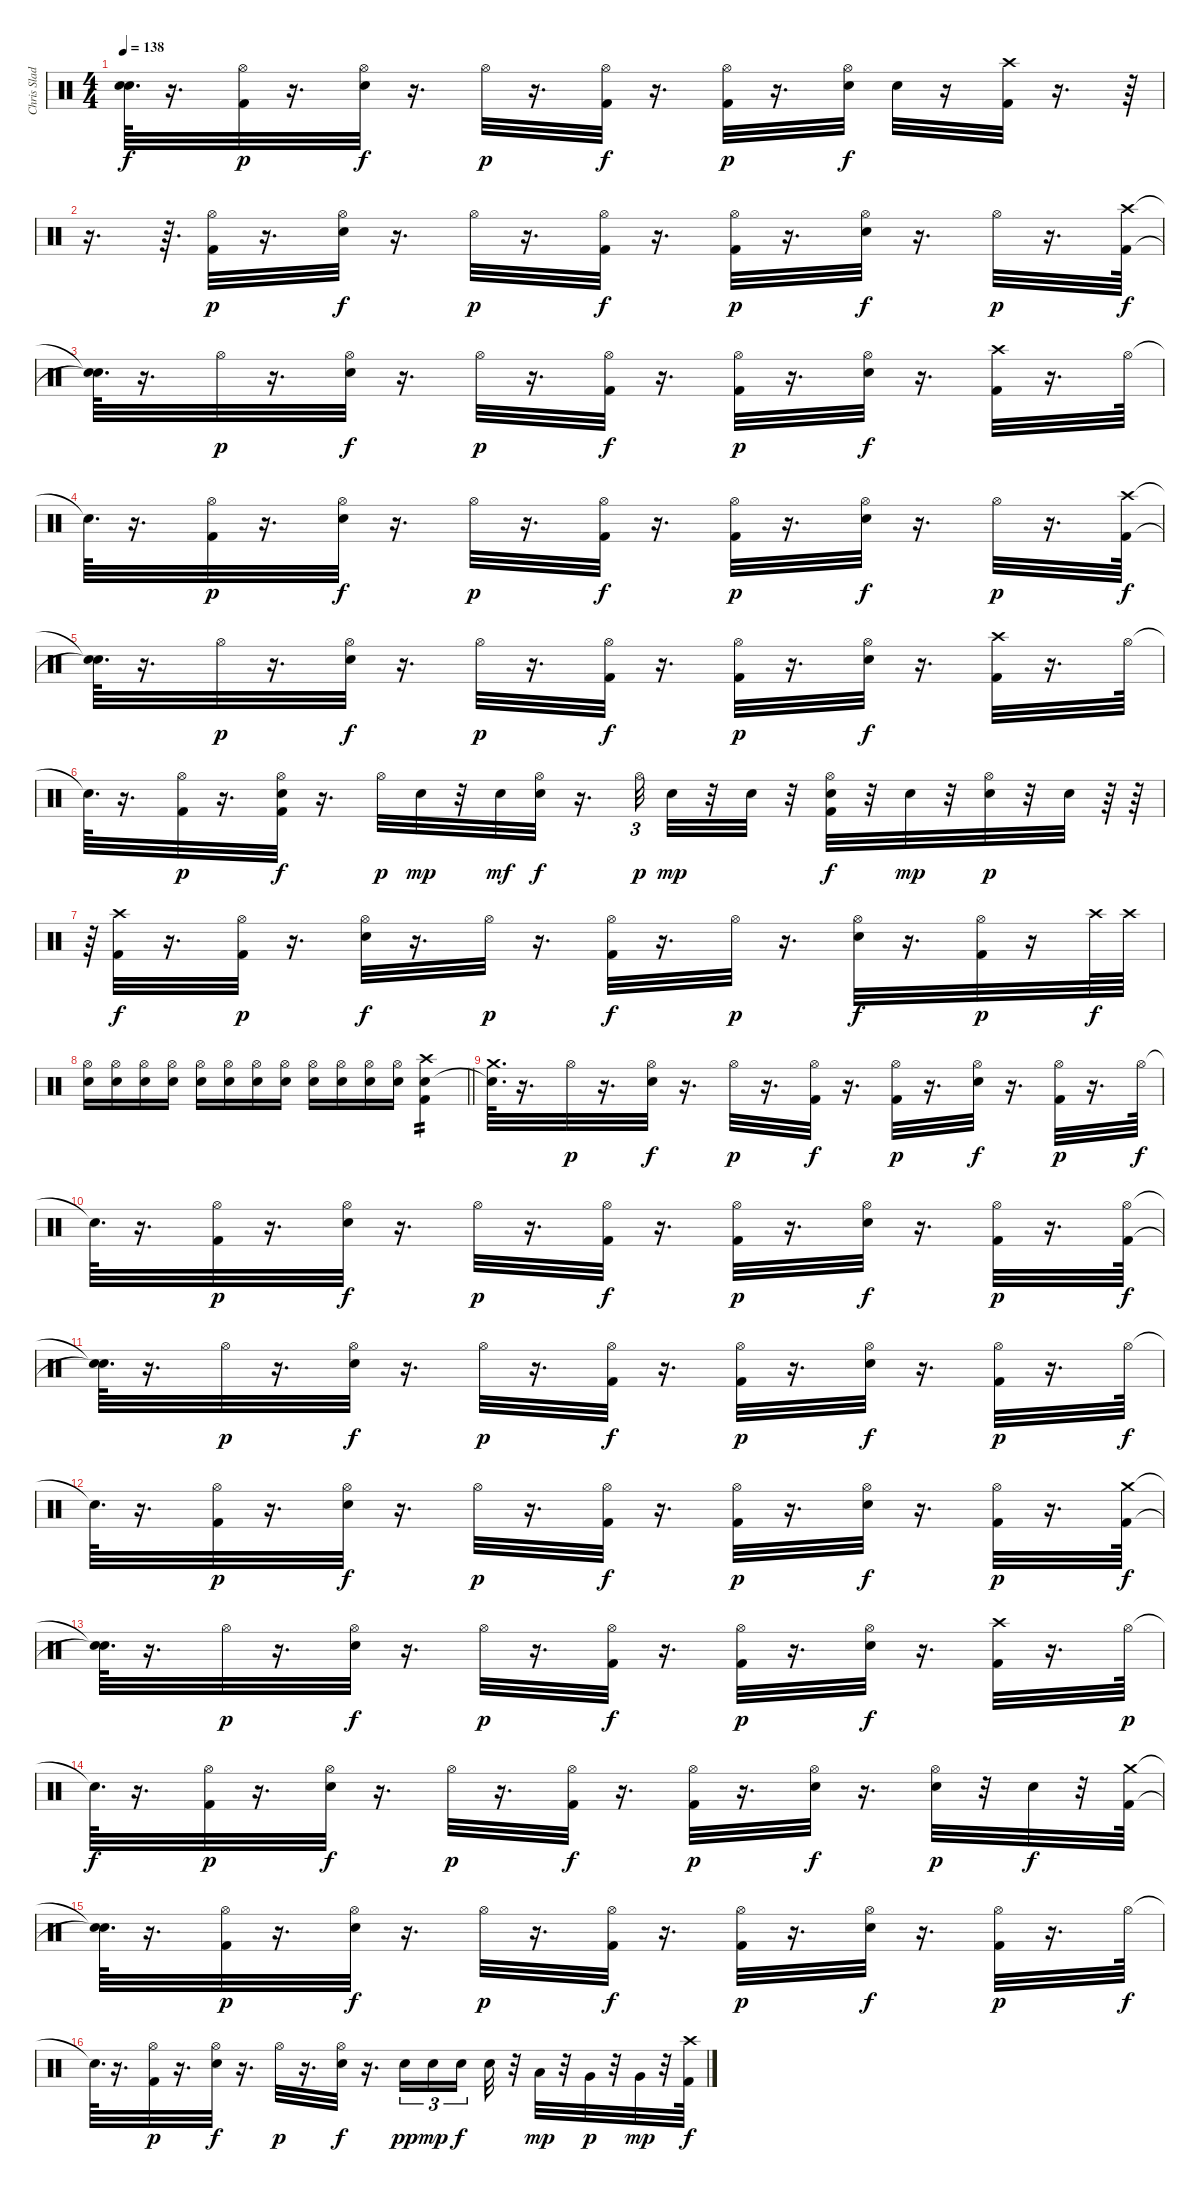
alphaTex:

\track ("Chris Slade" "Chris Slad") {instrument percussion}
\staff {score}
\articulation defaults
\ts (4 4)
\tempo 138
\clef neutral
\ks c
("Snare (hit)"{t} "Snare (hit)"{t}).64{d dy f} r.16{d} ("Kick (hit) 2" "Hi-Hat (open)").32{dy p} r.16{d} ("Hi-Hat (open)" "Electric Snare (hit)").32{dy f} r.16{d} "Hi-Hat (open)".32{dy p} r.16{d} ("Hi-Hat (open)" "Kick (hit) 2").32{dy f} r.16{d} ("Kick (hit) 2" "Hi-Hat (open)").32{dy p} r.16{d} ("Hi-Hat (open)" "Electric Snare (hit)").32{dy f} "Snare (hit) 2".32 r.16 ("Crash high (hit)" "Kick (hit) 2").32 r.16{d} r.64 |
r.16{d} r.64{d} ("Kick (hit) 2" "Hi-Hat (open)").32{dy p} r.16{d} ("Hi-Hat (open)" "Electric Snare (hit)").32{dy f} r.16{d} "Hi-Hat (open)".32{dy p} r.16{d} ("Hi-Hat (open)" "Kick (hit) 2").32{dy f} r.16{d} ("Kick (hit) 2" "Hi-Hat (open)").32{dy p} r.16{d} ("Hi-Hat (open)" "Electric Snare (hit)").32{dy f} r.16{d} "Hi-Hat (open)".32{dy p} r.16{d} ("Crash high (hit)" "Kick (hit) 2").64{dy f} |
("Snare (hit)"{t} "Snare (hit)"{t}).64{d} r.16{d} "Hi-Hat (open)".32{dy p} r.16{d} ("Hi-Hat (open)" "Electric Snare (hit)").32{dy f} r.16{d} "Hi-Hat (open)".32{dy p} r.16{d} ("Hi-Hat (open)" "Kick (hit) 2").32{dy f} r.16{d} ("Kick (hit) 2" "Hi-Hat (open)").32{dy p} r.16{d} ("Hi-Hat (open)" "Electric Snare (hit)").32{dy f} r.16{d} ("Crash high (hit)" "Kick (hit) 2").32 r.16{d} "Hi-Hat (open)".64 |
"Snare (hit)"{t}.64{d} r.16{d} ("Kick (hit) 2" "Hi-Hat (open)").32{dy p} r.16{d} ("Hi-Hat (open)" "Electric Snare (hit)").32{dy f} r.16{d} "Hi-Hat (open)".32{dy p} r.16{d} ("Hi-Hat (open)" "Kick (hit) 2").32{dy f} r.16{d} ("Kick (hit) 2" "Hi-Hat (open)").32{dy p} r.16{d} ("Hi-Hat (open)" "Electric Snare (hit)").32{dy f} r.16{d} "Hi-Hat (open)".32{dy p} r.16{d} ("Crash high (hit)" "Kick (hit) 2").64{dy f} |
("Snare (hit)"{t} "Snare (hit)"{t}).64{d} r.16{d} "Hi-Hat (open)".32{dy p} r.16{d} ("Hi-Hat (open)" "Electric Snare (hit)").32{dy f} r.16{d} "Hi-Hat (open)".32{dy p} r.16{d} ("Hi-Hat (open)" "Kick (hit) 2").32{dy f} r.16{d} ("Kick (hit) 2" "Hi-Hat (open)").32{dy p} r.16{d} ("Hi-Hat (open)" "Electric Snare (hit)").32{dy f} r.16{d} ("Crash high (hit)" "Kick (hit) 2").32 r.16{d} "Hi-Hat (open)".64 |
"Snare (hit)"{t}.64{d} r.16{d} ("Kick (hit) 2" "Hi-Hat (open)").32{dy p} r.16{d} ("Kick (hit) 2" "Hi-Hat (open)" "Electric Snare (hit)").32{dy f} r.16{d} "Hi-Hat (open)".32{dy p} "Electric Snare (hit)".32{dy mp} r.32 "Electric Snare (hit)".32{dy mf} ("Hi-Hat (open)" "Electric Snare (hit)").32{dy f} r.16{d} "Hi-Hat (open)".32{tu (3 2) dy p} "Electric Snare (hit)".32{dy mp} r.32 "Electric Snare (hit)".32 r.32 ("Kick (hit) 2" "Hi-Hat (open)" "Electric Snare (hit)").32{dy f} r.32 "Electric Snare (hit)".32{dy mp} r.32 ("Electric Snare (hit)" "Hi-Hat (open)").32{dy p} r.32 "Electric Snare (hit)".32 r.64 r.64 |
r.64{tu (5 4)} ("Crash high (hit)" "Kick (hit) 2").32{dy f} r.16{d} ("Kick (hit) 2" "Hi-Hat (open)").32{dy p} r.16{d} ("Hi-Hat (open)" "Electric Snare (hit)").32{dy f} r.16{d} "Hi-Hat (open)".32{dy p} r.16{d} ("Hi-Hat (open)" "Kick (hit) 2").32{dy f} r.16{d} "Hi-Hat (open)".32{dy p} r.16{d} ("Hi-Hat (open)" "Electric Snare (hit)").32{dy f} r.16{d} ("Kick (hit) 2" "Hi-Hat (open)").32{dy p} r.16 "Crash high (hit)".64{dy f} "Crash high (hit)".64 |
\barLineRight lightlight
("Hi-Hat (open)" "Electric Snare (hit)").16 ("Hi-Hat (open)" "Electric Snare (hit)").16 ("Hi-Hat (open)" "Electric Snare (hit)").16 ("Hi-Hat (open)" "Electric Snare (hit)").16 ("Hi-Hat (open)" "Electric Snare (hit)").16 ("Hi-Hat (open)" "Electric Snare (hit)").16 ("Hi-Hat (open)" "Electric Snare (hit)").16 ("Hi-Hat (open)" "Electric Snare (hit)").16 ("Hi-Hat (open)" "Electric Snare (hit)").16 ("Hi-Hat (open)" "Electric Snare (hit)").16 ("Hi-Hat (open)" "Electric Snare (hit)").16 ("Hi-Hat (open)" "Electric Snare (hit)").16 ("Crash high (hit)" "Snare (hit) 2" "Kick (hit) 2").4{tp 2} |
("Crash medium (hit)" "Snare (hit)"{t}).64{d} r.16{d} "Hi-Hat (open)".32{dy p} r.16{d} ("Hi-Hat (open)" "Electric Snare (hit)").32{dy f} r.16{d} "Hi-Hat (open)".32{dy p} r.16{d} ("Hi-Hat (open)" "Kick (hit) 2").32{dy f} r.16{d} ("Kick (hit) 2" "Hi-Hat (open)").32{dy p} r.16{d} ("Hi-Hat (open)" "Electric Snare (hit)").32{dy f} r.16{d} ("Kick (hit) 2" "Hi-Hat (open)").32{dy p} r.16{d} "Hi-Hat (open)".64{dy f} |
"Snare (hit)"{t}.64{d} r.16{d} ("Kick (hit) 2" "Hi-Hat (open)").32{dy p} r.16{d} ("Hi-Hat (open)" "Electric Snare (hit)").32{dy f} r.16{d} "Hi-Hat (open)".32{dy p} r.16{d} ("Hi-Hat (open)" "Kick (hit) 2").32{dy f} r.16{d} ("Kick (hit) 2" "Hi-Hat (open)").32{dy p} r.16{d} ("Hi-Hat (open)" "Electric Snare (hit)").32{dy f} r.16{d} ("Kick (hit) 2" "Hi-Hat (open)").32{dy p} r.16{d} ("Hi-Hat (open)" "Kick (hit) 2").64{dy f} |
("Snare (hit)"{t} "Snare (hit)"{t}).64{d} r.16{d} "Hi-Hat (open)".32{dy p} r.16{d} ("Hi-Hat (open)" "Electric Snare (hit)").32{dy f} r.16{d} "Hi-Hat (open)".32{dy p} r.16{d} ("Hi-Hat (open)" "Kick (hit) 2").32{dy f} r.16{d} ("Kick (hit) 2" "Hi-Hat (open)").32{dy p} r.16{d} ("Hi-Hat (open)" "Electric Snare (hit)").32{dy f} r.16{d} ("Kick (hit) 2" "Hi-Hat (open)").32{dy p} r.16{d} "Hi-Hat (open)".64{dy f} |
"Snare (hit)"{t}.64{d} r.16{d} ("Kick (hit) 2" "Hi-Hat (open)").32{dy p} r.16{d} ("Hi-Hat (open)" "Electric Snare (hit)").32{dy f} r.16{d} "Hi-Hat (open)".32{dy p} r.16{d} ("Hi-Hat (open)" "Kick (hit) 2").32{dy f} r.16{d} ("Kick (hit) 2" "Hi-Hat (open)").32{dy p} r.16{d} ("Hi-Hat (open)" "Electric Snare (hit)").32{dy f} r.16{d} ("Kick (hit) 2" "Hi-Hat (open)").32{dy p} r.16{d} ("Crash medium (hit)" "Kick (hit) 2").64{dy f} |
("Snare (hit)"{t} "Snare (hit)"{t}).64{d} r.16{d} "Hi-Hat (open)".32{dy p} r.16{d} ("Hi-Hat (open)" "Electric Snare (hit)").32{dy f} r.16{d} "Hi-Hat (open)".32{dy p} r.16{d} ("Hi-Hat (open)" "Kick (hit) 2").32{dy f} r.16{d} ("Hi-Hat (open)" "Kick (hit) 2").32{dy p} r.16{d} ("Hi-Hat (open)" "Electric Snare (hit)").32{dy f} r.16{d} ("Crash high (hit)" "Kick (hit) 2").32 r.16{d} "Hi-Hat (open)".64{dy p} |
"Snare (hit)"{t}.64{d dy f} r.16{d} ("Kick (hit) 2" "Hi-Hat (open)").32{dy p} r.16{d} ("Hi-Hat (open)" "Electric Snare (hit)").32{dy f} r.16{d} "Hi-Hat (open)".32{dy p} r.16{d} ("Hi-Hat (open)" "Kick (hit) 2").32{dy f} r.16{d} ("Kick (hit) 2" "Hi-Hat (open)").32{dy p} r.16{d} ("Hi-Hat (open)" "Electric Snare (hit)").32{dy f} r.16{d} ("Electric Snare (hit)" "Hi-Hat (open)").32{dy p} r.32 "Electric Snare (hit)".32{dy f} r.32 ("Crash medium (hit)" "Kick (hit) 2").64 |
("Snare (hit)"{t} "Snare (hit)"{t}).64{d} r.16{d} ("Kick (hit) 2" "Hi-Hat (open)").32{dy p} r.16{d} ("Hi-Hat (open)" "Electric Snare (hit)").32{dy f} r.16{d} "Hi-Hat (open)".32{dy p} r.16{d} ("Hi-Hat (open)" "Kick (hit) 2").32{dy f} r.16{d} ("Kick (hit) 2" "Hi-Hat (open)").32{dy p} r.16{d} ("Hi-Hat (open)" "Electric Snare (hit)").32{dy f} r.16{d} ("Kick (hit) 2" "Hi-Hat (open)").32{dy p} r.16{d} "Hi-Hat (open)".64{dy f} |
"Snare (hit)"{t}.64{d} r.16{d} ("Kick (hit) 2" "Hi-Hat (open)").32{dy p} r.16{d} ("Hi-Hat (open)" "Electric Snare (hit)").32{dy f} r.16{d} "Hi-Hat (open)".32{dy p} r.16{d} ("Electric Snare (hit)" "Hi-Hat (open)").32{dy f} r.16{d} "Electric Snare (hit)".16{tu (3 2) dy pp} "Electric Snare (hit)".16{tu (3 2) dy mp} "Electric Snare (hit)".16{tu (3 2) dy f beam splitsecondary} "Electric Snare (hit)".32 r.32 "Low Tom (hit)".32{dy mp} r.32 "Very Low Tom (hit)".32{dy p} r.32 "Very Low Tom (hit)".32{dy mp} r.32 ("Crash high (hit)" "Kick (hit) 2").64{dy f}
